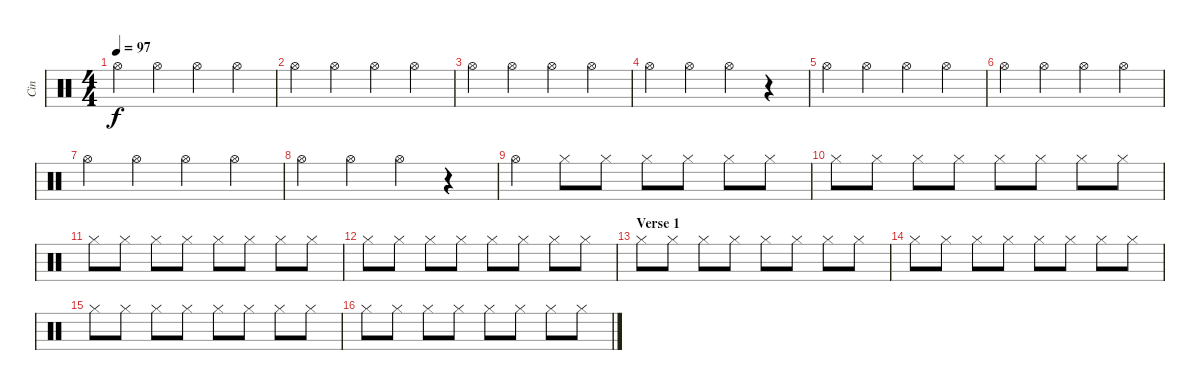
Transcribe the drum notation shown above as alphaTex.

\track ("Cin" "Cin") {instrument percussion}
\staff {score}
\articulation defaults
\ts (4 4)
\tempo 97
\clef neutral
\ks c "Hi-Hat (open)".4{dy f} "Hi-Hat (open)".4 "Hi-Hat (open)".4 "Hi-Hat (open)".4
|
"Hi-Hat (open)".4 "Hi-Hat (open)".4 "Hi-Hat (open)".4 "Hi-Hat (open)".4 |
"Hi-Hat (open)".4 "Hi-Hat (open)".4 "Hi-Hat (open)".4 "Hi-Hat (open)".4 |
"Hi-Hat (open)".4 "Hi-Hat (open)".4 "Hi-Hat (open)".4 r.4 |
"Hi-Hat (open)".4 "Hi-Hat (open)".4 "Hi-Hat (open)".4 "Hi-Hat (open)".4 |
"Hi-Hat (open)".4 "Hi-Hat (open)".4 "Hi-Hat (open)".4 "Hi-Hat (open)".4 |
"Hi-Hat (open)".4 "Hi-Hat (open)".4 "Hi-Hat (open)".4 "Hi-Hat (open)".4 |
"Hi-Hat (open)".4 "Hi-Hat (open)".4 "Hi-Hat (open)".4 r.4 |
"Hi-Hat (open)".4 "Hi-Hat (closed)".8 "Hi-Hat (closed)".8 "Hi-Hat (closed)".8 "Hi-Hat (closed)".8 "Hi-Hat (closed)".8 "Hi-Hat (closed)".8 |
"Hi-Hat (closed)".8 "Hi-Hat (closed)".8 "Hi-Hat (closed)".8 "Hi-Hat (closed)".8 "Hi-Hat (closed)".8 "Hi-Hat (closed)".8 "Hi-Hat (closed)".8 "Hi-Hat (closed)".8 |
"Hi-Hat (closed)".8 "Hi-Hat (closed)".8 "Hi-Hat (closed)".8 "Hi-Hat (closed)".8 "Hi-Hat (closed)".8 "Hi-Hat (closed)".8 "Hi-Hat (closed)".8 "Hi-Hat (closed)".8 |
"Hi-Hat (closed)".8 "Hi-Hat (closed)".8 "Hi-Hat (closed)".8 "Hi-Hat (closed)".8 "Hi-Hat (closed)".8 "Hi-Hat (closed)".8 "Hi-Hat (closed)".8 "Hi-Hat (closed)".8 |
\section ("" "Verse 1")
"Hi-Hat (closed)".8 "Hi-Hat (closed)".8 "Hi-Hat (closed)".8 "Hi-Hat (closed)".8 "Hi-Hat (closed)".8 "Hi-Hat (closed)".8 "Hi-Hat (closed)".8 "Hi-Hat (closed)".8 |
"Hi-Hat (closed)".8 "Hi-Hat (closed)".8 "Hi-Hat (closed)".8 "Hi-Hat (closed)".8 "Hi-Hat (closed)".8 "Hi-Hat (closed)".8 "Hi-Hat (closed)".8 "Hi-Hat (closed)".8 |
"Hi-Hat (closed)".8 "Hi-Hat (closed)".8 "Hi-Hat (closed)".8 "Hi-Hat (closed)".8 "Hi-Hat (closed)".8 "Hi-Hat (closed)".8 "Hi-Hat (closed)".8 "Hi-Hat (closed)".8 |
"Hi-Hat (closed)".8 "Hi-Hat (closed)".8 "Hi-Hat (closed)".8 "Hi-Hat (closed)".8 "Hi-Hat (closed)".8 "Hi-Hat (closed)".8 "Hi-Hat (closed)".8 "Hi-Hat (closed)".8
